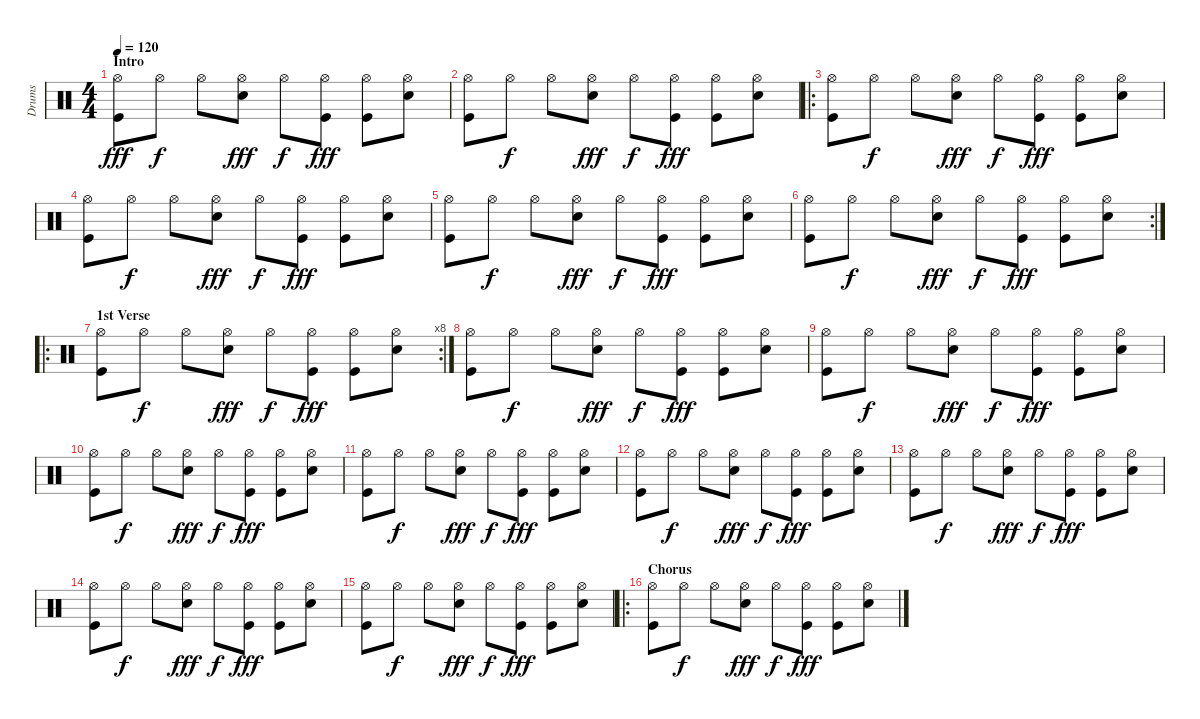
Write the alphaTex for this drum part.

\track ("Drums" "Drums") {instrument percussion}
\staff {score}
\articulation defaults
\ts (4 4)
\section ("" "Intro")
\tempo 120
\clef neutral
\ks c
("Kick (hit)" "Hi-Hat (open)").8{dy fff} "Hi-Hat (open)".8{dy f} "Hi-Hat (open)".8 ("Snare (hit) 2" "Hi-Hat (open)").8{dy fff} "Hi-Hat (open)".8{dy f} ("Kick (hit)" "Hi-Hat (open)").8{dy fff} ("Kick (hit)" "Hi-Hat (open)").8 ("Snare (hit) 2" "Hi-Hat (open)").8 |
("Kick (hit)" "Hi-Hat (open)").8 "Hi-Hat (open)".8{dy f} "Hi-Hat (open)".8 ("Snare (hit) 2" "Hi-Hat (open)").8{dy fff} "Hi-Hat (open)".8{dy f} ("Kick (hit)" "Hi-Hat (open)").8{dy fff} ("Kick (hit)" "Hi-Hat (open)").8 ("Snare (hit) 2" "Hi-Hat (open)").8 |
\ro
("Kick (hit)" "Hi-Hat (open)").8 "Hi-Hat (open)".8{dy f} "Hi-Hat (open)".8 ("Snare (hit) 2" "Hi-Hat (open)").8{dy fff} "Hi-Hat (open)".8{dy f} ("Kick (hit)" "Hi-Hat (open)").8{dy fff} ("Kick (hit)" "Hi-Hat (open)").8 ("Snare (hit) 2" "Hi-Hat (open)").8 |
("Kick (hit)" "Hi-Hat (open)").8 "Hi-Hat (open)".8{dy f} "Hi-Hat (open)".8 ("Snare (hit) 2" "Hi-Hat (open)").8{dy fff} "Hi-Hat (open)".8{dy f} ("Kick (hit)" "Hi-Hat (open)").8{dy fff} ("Kick (hit)" "Hi-Hat (open)").8 ("Snare (hit) 2" "Hi-Hat (open)").8 |
("Kick (hit)" "Hi-Hat (open)").8 "Hi-Hat (open)".8{dy f} "Hi-Hat (open)".8 ("Snare (hit) 2" "Hi-Hat (open)").8{dy fff} "Hi-Hat (open)".8{dy f} ("Kick (hit)" "Hi-Hat (open)").8{dy fff} ("Kick (hit)" "Hi-Hat (open)").8 ("Snare (hit) 2" "Hi-Hat (open)").8 |
\rc 2
("Kick (hit)" "Hi-Hat (open)").8 "Hi-Hat (open)".8{dy f} "Hi-Hat (open)".8 ("Snare (hit) 2" "Hi-Hat (open)").8{dy fff} "Hi-Hat (open)".8{dy f} ("Kick (hit)" "Hi-Hat (open)").8{dy fff} ("Kick (hit)" "Hi-Hat (open)").8 ("Snare (hit) 2" "Hi-Hat (open)").8 |
\ro
\rc 8
\section ("" "1st Verse")
("Kick (hit)" "Hi-Hat (open)").8 "Hi-Hat (open)".8{dy f} "Hi-Hat (open)".8 ("Snare (hit) 2" "Hi-Hat (open)").8{dy fff} "Hi-Hat (open)".8{dy f} ("Kick (hit)" "Hi-Hat (open)").8{dy fff} ("Kick (hit)" "Hi-Hat (open)").8 ("Snare (hit) 2" "Hi-Hat (open)").8 |
("Kick (hit)" "Hi-Hat (open)").8 "Hi-Hat (open)".8{dy f} "Hi-Hat (open)".8 ("Snare (hit) 2" "Hi-Hat (open)").8{dy fff} "Hi-Hat (open)".8{dy f} ("Kick (hit)" "Hi-Hat (open)").8{dy fff} ("Kick (hit)" "Hi-Hat (open)").8 ("Snare (hit) 2" "Hi-Hat (open)").8 |
("Kick (hit)" "Hi-Hat (open)").8 "Hi-Hat (open)".8{dy f} "Hi-Hat (open)".8 ("Snare (hit) 2" "Hi-Hat (open)").8{dy fff} "Hi-Hat (open)".8{dy f} ("Kick (hit)" "Hi-Hat (open)").8{dy fff} ("Kick (hit)" "Hi-Hat (open)").8 ("Snare (hit) 2" "Hi-Hat (open)").8 |
("Kick (hit)" "Hi-Hat (open)").8 "Hi-Hat (open)".8{dy f} "Hi-Hat (open)".8 ("Snare (hit) 2" "Hi-Hat (open)").8{dy fff} "Hi-Hat (open)".8{dy f} ("Kick (hit)" "Hi-Hat (open)").8{dy fff} ("Kick (hit)" "Hi-Hat (open)").8 ("Snare (hit) 2" "Hi-Hat (open)").8 |
("Kick (hit)" "Hi-Hat (open)").8 "Hi-Hat (open)".8{dy f} "Hi-Hat (open)".8 ("Snare (hit) 2" "Hi-Hat (open)").8{dy fff} "Hi-Hat (open)".8{dy f} ("Kick (hit)" "Hi-Hat (open)").8{dy fff} ("Kick (hit)" "Hi-Hat (open)").8 ("Snare (hit) 2" "Hi-Hat (open)").8 |
("Kick (hit)" "Hi-Hat (open)").8 "Hi-Hat (open)".8{dy f} "Hi-Hat (open)".8 ("Snare (hit) 2" "Hi-Hat (open)").8{dy fff} "Hi-Hat (open)".8{dy f} ("Kick (hit)" "Hi-Hat (open)").8{dy fff} ("Kick (hit)" "Hi-Hat (open)").8 ("Snare (hit) 2" "Hi-Hat (open)").8 |
("Kick (hit)" "Hi-Hat (open)").8 "Hi-Hat (open)".8{dy f} "Hi-Hat (open)".8 ("Snare (hit) 2" "Hi-Hat (open)").8{dy fff} "Hi-Hat (open)".8{dy f} ("Kick (hit)" "Hi-Hat (open)").8{dy fff} ("Kick (hit)" "Hi-Hat (open)").8 ("Snare (hit) 2" "Hi-Hat (open)").8 |
("Kick (hit)" "Hi-Hat (open)").8 "Hi-Hat (open)".8{dy f} "Hi-Hat (open)".8 ("Snare (hit) 2" "Hi-Hat (open)").8{dy fff} "Hi-Hat (open)".8{dy f} ("Kick (hit)" "Hi-Hat (open)").8{dy fff} ("Kick (hit)" "Hi-Hat (open)").8 ("Snare (hit) 2" "Hi-Hat (open)").8 |
("Kick (hit)" "Hi-Hat (open)").8 "Hi-Hat (open)".8{dy f} "Hi-Hat (open)".8 ("Snare (hit) 2" "Hi-Hat (open)").8{dy fff} "Hi-Hat (open)".8{dy f} ("Kick (hit)" "Hi-Hat (open)").8{dy fff} ("Kick (hit)" "Hi-Hat (open)").8 ("Snare (hit) 2" "Hi-Hat (open)").8 |
\ro
\section ("" "Chorus")
("Kick (hit)" "Hi-Hat (open)").8 "Hi-Hat (open)".8{dy f} "Hi-Hat (open)".8 ("Snare (hit) 2" "Hi-Hat (open)").8{dy fff} "Hi-Hat (open)".8{dy f} ("Kick (hit)" "Hi-Hat (open)").8{dy fff} ("Kick (hit)" "Hi-Hat (open)").8 ("Snare (hit) 2" "Hi-Hat (open)").8
